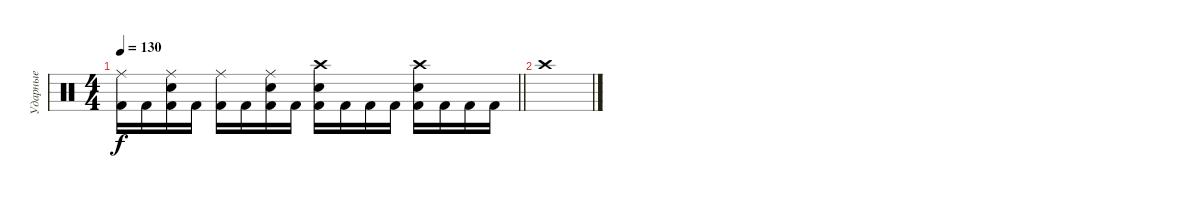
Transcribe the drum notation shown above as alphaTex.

\track ("Ударные" "Ударные") {instrument percussion}
\staff {score}
\articulation defaults
\ts (4 4)
\tempo 130
\clef neutral
\barLineRight lightlight
\ks c
("Ride (middle)" "Kick (hit) 2").16{dy f} "Kick (hit) 2".16 ("Ride (middle)" "Snare (hit) 2" "Kick (hit) 2").16 "Kick (hit) 2".16 ("Ride (middle)" "Kick (hit) 2").16 "Kick (hit) 2".16 ("Ride (middle)" "Snare (hit) 2" "Kick (hit) 2").16 "Kick (hit) 2".16 ("Crash high (hit)" "Snare (hit) 2" "Kick (hit) 2").16 "Kick (hit) 2".16 "Kick (hit) 2".16 "Kick (hit) 2".16 ("Crash high (hit)" "Snare (hit) 2" "Kick (hit) 2").16 "Kick (hit) 2".16 "Kick (hit) 2".16 "Kick (hit) 2".16 |
\section ("" "")
"Crash high (hit)".1
